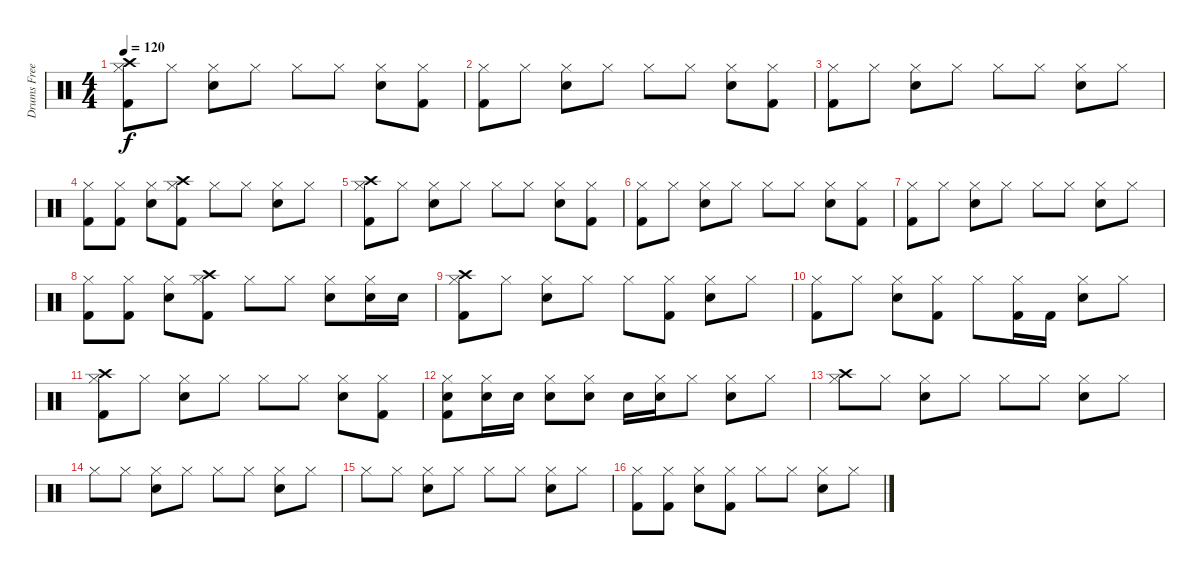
\track ("Drums Freese" "Drums Free") {instrument percussion}
\staff {score}
\articulation defaults
\ts (4 4)
\tempo 120
\clef neutral
\ks c
("Hi-Hat (closed)" "Crash high (hit)" "Kick (hit) 2").8{dy f} "Hi-Hat (closed)".8 ("Hi-Hat (closed)" "Snare (hit) 2").8 "Hi-Hat (closed)".8 "Hi-Hat (closed)".8 "Hi-Hat (closed)".8 ("Hi-Hat (closed)" "Snare (hit) 2").8 ("Hi-Hat (closed)" "Kick (hit) 2").8 |
("Hi-Hat (closed)" "Kick (hit) 2").8 "Hi-Hat (closed)".8 ("Hi-Hat (closed)" "Snare (hit) 2").8 "Hi-Hat (closed)".8 "Hi-Hat (closed)".8 "Hi-Hat (closed)".8 ("Hi-Hat (closed)" "Snare (hit) 2").8 ("Hi-Hat (closed)" "Kick (hit) 2").8 |
("Hi-Hat (closed)" "Kick (hit) 2").8 "Hi-Hat (closed)".8 ("Hi-Hat (closed)" "Snare (hit) 2").8 "Hi-Hat (closed)".8 "Hi-Hat (closed)".8 "Hi-Hat (closed)".8 ("Hi-Hat (closed)" "Snare (hit) 2").8 "Hi-Hat (closed)".8 |
("Hi-Hat (closed)" "Kick (hit) 2").8 ("Hi-Hat (closed)" "Kick (hit) 2").8 ("Hi-Hat (closed)" "Snare (hit) 2").8 ("Hi-Hat (closed)" "Crash high (hit)" "Kick (hit) 2").8 "Hi-Hat (closed)".8 "Hi-Hat (closed)".8 ("Hi-Hat (closed)" "Snare (hit) 2").8 "Hi-Hat (closed)".8 |
("Hi-Hat (closed)" "Crash high (hit)" "Kick (hit) 2").8 "Hi-Hat (closed)".8 ("Hi-Hat (closed)" "Snare (hit) 2").8 "Hi-Hat (closed)".8 "Hi-Hat (closed)".8 "Hi-Hat (closed)".8 ("Hi-Hat (closed)" "Snare (hit) 2").8 ("Hi-Hat (closed)" "Kick (hit) 2").8 |
("Hi-Hat (closed)" "Kick (hit) 2").8 "Hi-Hat (closed)".8 ("Hi-Hat (closed)" "Snare (hit) 2").8 "Hi-Hat (closed)".8 "Hi-Hat (closed)".8 "Hi-Hat (closed)".8 ("Hi-Hat (closed)" "Snare (hit) 2").8 ("Hi-Hat (closed)" "Kick (hit) 2").8 |
("Hi-Hat (closed)" "Kick (hit) 2").8 "Hi-Hat (closed)".8 ("Hi-Hat (closed)" "Snare (hit) 2").8 "Hi-Hat (closed)".8 "Hi-Hat (closed)".8 "Hi-Hat (closed)".8 ("Hi-Hat (closed)" "Snare (hit) 2").8 "Hi-Hat (closed)".8 |
("Hi-Hat (closed)" "Kick (hit) 2").8 ("Hi-Hat (closed)" "Kick (hit) 2").8 ("Hi-Hat (closed)" "Snare (hit) 2").8 ("Hi-Hat (closed)" "Crash high (hit)" "Kick (hit) 2").8 "Hi-Hat (closed)".8 "Hi-Hat (closed)".8 ("Hi-Hat (closed)" "Snare (hit) 2").8 ("Hi-Hat (closed)" "Snare (hit) 2").16 "Snare (hit) 2".16 |
("Hi-Hat (closed)" "Crash high (hit)" "Kick (hit) 2").8 "Hi-Hat (closed)".8 ("Hi-Hat (closed)" "Snare (hit) 2").8 "Hi-Hat (closed)".8 "Hi-Hat (closed)".8 ("Hi-Hat (closed)" "Kick (hit) 2").8 ("Hi-Hat (closed)" "Snare (hit) 2").8 "Hi-Hat (closed)".8 |
("Hi-Hat (closed)" "Kick (hit) 2").8 "Hi-Hat (closed)".8 ("Hi-Hat (closed)" "Snare (hit) 2").8 ("Hi-Hat (closed)" "Kick (hit) 2").8 "Hi-Hat (closed)".8 ("Hi-Hat (closed)" "Kick (hit) 2").16 "Kick (hit) 2".16 ("Hi-Hat (closed)" "Snare (hit) 2").8 "Hi-Hat (closed)".8 |
("Hi-Hat (closed)" "Crash high (hit)" "Kick (hit) 2").8 "Hi-Hat (closed)".8 ("Hi-Hat (closed)" "Snare (hit) 2").8 "Hi-Hat (closed)".8 "Hi-Hat (closed)".8 "Hi-Hat (closed)".8 ("Hi-Hat (closed)" "Snare (hit) 2").8 ("Hi-Hat (closed)" "Kick (hit) 2").8 |
("Hi-Hat (closed)" "Snare (hit) 2" "Kick (hit) 2").8 ("Hi-Hat (closed)" "Snare (hit) 2").16 "Snare (hit) 2".16 ("Hi-Hat (closed)" "Snare (hit) 2").8 ("Hi-Hat (closed)" "Snare (hit) 2").8 "Snare (hit) 2".16 ("Hi-Hat (closed)" "Snare (hit) 2").16 "Hi-Hat (closed)".8 ("Hi-Hat (closed)" "Snare (hit) 2").8 "Hi-Hat (closed)".8 |
("Hi-Hat (closed)" "Crash high (hit)").8 "Hi-Hat (closed)".8 ("Hi-Hat (closed)" "Snare (hit) 2").8 "Hi-Hat (closed)".8 "Hi-Hat (closed)".8 "Hi-Hat (closed)".8 ("Hi-Hat (closed)" "Snare (hit) 2").8 "Hi-Hat (closed)".8 |
"Hi-Hat (closed)".8 "Hi-Hat (closed)".8 ("Hi-Hat (closed)" "Snare (hit) 2").8 "Hi-Hat (closed)".8 "Hi-Hat (closed)".8 "Hi-Hat (closed)".8 ("Hi-Hat (closed)" "Snare (hit) 2").8 "Hi-Hat (closed)".8 |
"Hi-Hat (closed)".8 "Hi-Hat (closed)".8 ("Hi-Hat (closed)" "Snare (hit) 2").8 "Hi-Hat (closed)".8 "Hi-Hat (closed)".8 "Hi-Hat (closed)".8 ("Hi-Hat (closed)" "Snare (hit) 2").8 "Hi-Hat (closed)".8 |
("Hi-Hat (closed)" "Kick (hit) 2").8 ("Hi-Hat (closed)" "Kick (hit) 2").8 ("Hi-Hat (closed)" "Snare (hit) 2").8 ("Hi-Hat (closed)" "Kick (hit) 2").8 "Hi-Hat (closed)".8 "Hi-Hat (closed)".8 ("Hi-Hat (closed)" "Snare (hit) 2").8 "Hi-Hat (closed)".8
